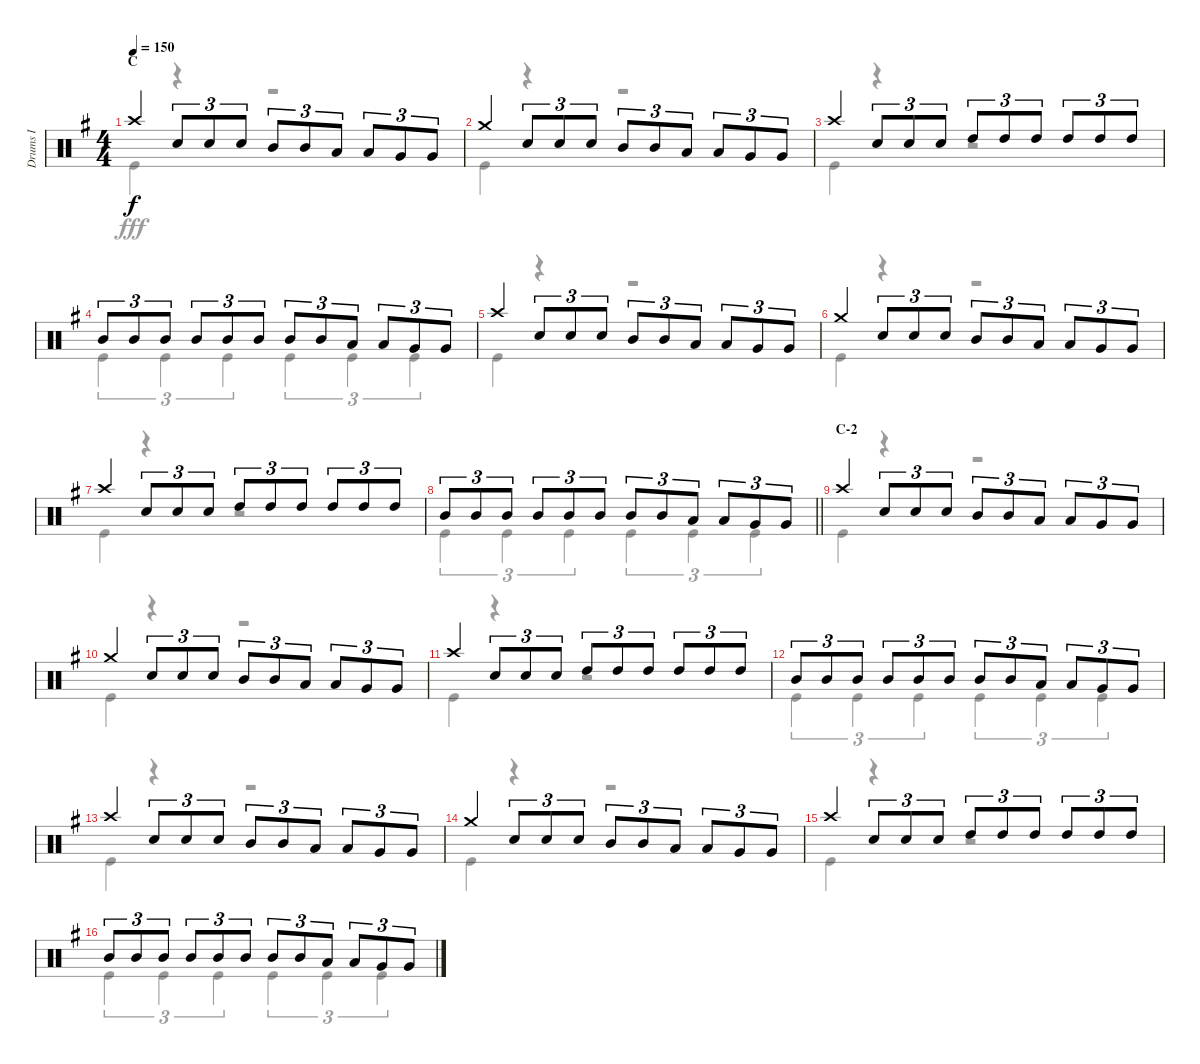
\track ("Drums I" "Drums I") {instrument percussion}
\staff {score}
\articulation defaults
\voice
\ts (4 4)
\section ("" "C")
\tempo 150
\clef neutral
\ks g "Crash high (hit)".4{dy f} "Snare (hit) 2".8{tu (3 2)} "Snare (hit) 2".8{tu (3 2)} "Snare (hit) 2".8{tu (3 2)} "Mid Tom (hit)".8{tu (3 2)} "Mid Tom (hit)".8{tu (3 2)} "Low Tom (hit)".8{tu (3 2)} "Low Tom (hit)".8{tu (3 2)} "Very Low Tom (hit)".8{tu (3 2)} "Very Low Tom (hit)".8{tu (3 2)}
|
"Crash medium (hit)".4 "Snare (hit) 2".8{tu (3 2)} "Snare (hit) 2".8{tu (3 2)} "Snare (hit) 2".8{tu (3 2)} "Mid Tom (hit)".8{tu (3 2)} "Mid Tom (hit)".8{tu (3 2)} "Low Tom (hit)".8{tu (3 2)} "Low Tom (hit)".8{tu (3 2)} "Very Low Tom (hit)".8{tu (3 2)} "Very Low Tom (hit)".8{tu (3 2)} |
"Crash high (hit)".4 "Snare (hit) 2".8{tu (3 2)} "Snare (hit) 2".8{tu (3 2)} "Snare (hit) 2".8{tu (3 2)} "High Tom (hit)".8{tu (3 2)} "High Tom (hit)".8{tu (3 2)} "High Tom (hit)".8{tu (3 2)} "High Tom (hit)".8{tu (3 2)} "High Tom (hit)".8{tu (3 2)} "High Tom (hit)".8{tu (3 2)} |
"Mid Tom (hit)".8{tu (3 2)} "Mid Tom (hit)".8{tu (3 2)} "Mid Tom (hit)".8{tu (3 2)} "Mid Tom (hit)".8{tu (3 2)} "Mid Tom (hit)".8{tu (3 2)} "Mid Tom (hit)".8{tu (3 2)} "Mid Tom (hit)".8{tu (3 2)} "Mid Tom (hit)".8{tu (3 2)} "Low Tom (hit)".8{tu (3 2)} "Low Tom (hit)".8{tu (3 2)} "Very Low Tom (hit)".8{tu (3 2)} "Very Low Tom (hit)".8{tu (3 2)} |
"Crash high (hit)".4 "Snare (hit) 2".8{tu (3 2)} "Snare (hit) 2".8{tu (3 2)} "Snare (hit) 2".8{tu (3 2)} "Mid Tom (hit)".8{tu (3 2)} "Mid Tom (hit)".8{tu (3 2)} "Low Tom (hit)".8{tu (3 2)} "Low Tom (hit)".8{tu (3 2)} "Very Low Tom (hit)".8{tu (3 2)} "Very Low Tom (hit)".8{tu (3 2)} |
"Crash medium (hit)".4 "Snare (hit) 2".8{tu (3 2)} "Snare (hit) 2".8{tu (3 2)} "Snare (hit) 2".8{tu (3 2)} "Mid Tom (hit)".8{tu (3 2)} "Mid Tom (hit)".8{tu (3 2)} "Low Tom (hit)".8{tu (3 2)} "Low Tom (hit)".8{tu (3 2)} "Very Low Tom (hit)".8{tu (3 2)} "Very Low Tom (hit)".8{tu (3 2)} |
"Crash high (hit)".4 "Snare (hit) 2".8{tu (3 2)} "Snare (hit) 2".8{tu (3 2)} "Snare (hit) 2".8{tu (3 2)} "High Tom (hit)".8{tu (3 2)} "High Tom (hit)".8{tu (3 2)} "High Tom (hit)".8{tu (3 2)} "High Tom (hit)".8{tu (3 2)} "High Tom (hit)".8{tu (3 2)} "High Tom (hit)".8{tu (3 2)} |
\barLineRight lightlight "Mid Tom (hit)".8{tu (3 2)} "Mid Tom (hit)".8{tu (3 2)} "Mid Tom (hit)".8{tu (3 2)} "Mid Tom (hit)".8{tu (3 2)} "Mid Tom (hit)".8{tu (3 2)} "Mid Tom (hit)".8{tu (3 2)} "Mid Tom (hit)".8{tu (3 2)} "Mid Tom (hit)".8{tu (3 2)} "Low Tom (hit)".8{tu (3 2)} "Low Tom (hit)".8{tu (3 2)} "Very Low Tom (hit)".8{tu (3 2)} "Very Low Tom (hit)".8{tu (3 2)}
|
\section ("" "C-2")
"Crash high (hit)".4 "Snare (hit) 2".8{tu (3 2)} "Snare (hit) 2".8{tu (3 2)} "Snare (hit) 2".8{tu (3 2)} "Mid Tom (hit)".8{tu (3 2)} "Mid Tom (hit)".8{tu (3 2)} "Low Tom (hit)".8{tu (3 2)} "Low Tom (hit)".8{tu (3 2)} "Very Low Tom (hit)".8{tu (3 2)} "Very Low Tom (hit)".8{tu (3 2)} |
"Crash medium (hit)".4 "Snare (hit) 2".8{tu (3 2)} "Snare (hit) 2".8{tu (3 2)} "Snare (hit) 2".8{tu (3 2)} "Mid Tom (hit)".8{tu (3 2)} "Mid Tom (hit)".8{tu (3 2)} "Low Tom (hit)".8{tu (3 2)} "Low Tom (hit)".8{tu (3 2)} "Very Low Tom (hit)".8{tu (3 2)} "Very Low Tom (hit)".8{tu (3 2)} |
"Crash high (hit)".4 "Snare (hit) 2".8{tu (3 2)} "Snare (hit) 2".8{tu (3 2)} "Snare (hit) 2".8{tu (3 2)} "High Tom (hit)".8{tu (3 2)} "High Tom (hit)".8{tu (3 2)} "High Tom (hit)".8{tu (3 2)} "High Tom (hit)".8{tu (3 2)} "High Tom (hit)".8{tu (3 2)} "High Tom (hit)".8{tu (3 2)} |
"Mid Tom (hit)".8{tu (3 2)} "Mid Tom (hit)".8{tu (3 2)} "Mid Tom (hit)".8{tu (3 2)} "Mid Tom (hit)".8{tu (3 2)} "Mid Tom (hit)".8{tu (3 2)} "Mid Tom (hit)".8{tu (3 2)} "Mid Tom (hit)".8{tu (3 2)} "Mid Tom (hit)".8{tu (3 2)} "Low Tom (hit)".8{tu (3 2)} "Low Tom (hit)".8{tu (3 2)} "Very Low Tom (hit)".8{tu (3 2)} "Very Low Tom (hit)".8{tu (3 2)} |
"Crash high (hit)".4 "Snare (hit) 2".8{tu (3 2)} "Snare (hit) 2".8{tu (3 2)} "Snare (hit) 2".8{tu (3 2)} "Mid Tom (hit)".8{tu (3 2)} "Mid Tom (hit)".8{tu (3 2)} "Low Tom (hit)".8{tu (3 2)} "Low Tom (hit)".8{tu (3 2)} "Very Low Tom (hit)".8{tu (3 2)} "Very Low Tom (hit)".8{tu (3 2)} |
"Crash medium (hit)".4 "Snare (hit) 2".8{tu (3 2)} "Snare (hit) 2".8{tu (3 2)} "Snare (hit) 2".8{tu (3 2)} "Mid Tom (hit)".8{tu (3 2)} "Mid Tom (hit)".8{tu (3 2)} "Low Tom (hit)".8{tu (3 2)} "Low Tom (hit)".8{tu (3 2)} "Very Low Tom (hit)".8{tu (3 2)} "Very Low Tom (hit)".8{tu (3 2)} |
"Crash high (hit)".4 "Snare (hit) 2".8{tu (3 2)} "Snare (hit) 2".8{tu (3 2)} "Snare (hit) 2".8{tu (3 2)} "High Tom (hit)".8{tu (3 2)} "High Tom (hit)".8{tu (3 2)} "High Tom (hit)".8{tu (3 2)} "High Tom (hit)".8{tu (3 2)} "High Tom (hit)".8{tu (3 2)} "High Tom (hit)".8{tu (3 2)} |
"Mid Tom (hit)".8{tu (3 2)} "Mid Tom (hit)".8{tu (3 2)} "Mid Tom (hit)".8{tu (3 2)} "Mid Tom (hit)".8{tu (3 2)} "Mid Tom (hit)".8{tu (3 2)} "Mid Tom (hit)".8{tu (3 2)} "Mid Tom (hit)".8{tu (3 2)} "Mid Tom (hit)".8{tu (3 2)} "Low Tom (hit)".8{tu (3 2)} "Low Tom (hit)".8{tu (3 2)} "Very Low Tom (hit)".8{tu (3 2)} "Very Low Tom (hit)".8{tu (3 2)}
\voice
\clef neutral
\ottava regular
\simile none
\ks g "Kick (hit)".4{dy fff}
r.4 r.2 |
"Kick (hit)".4 r.4 r.2 |
"Kick (hit)".4 r.4 r.2 |
"Kick (hit)".4{tu (3 2)} "Kick (hit)".4{tu (3 2)} "Kick (hit)".4{tu (3 2)} "Kick (hit)".4{tu (3 2)} "Kick (hit)".4{tu (3 2)} "Kick (hit)".4{tu (3 2)} |
"Kick (hit)".4 r.4 r.2 |
"Kick (hit)".4 r.4 r.2 |
"Kick (hit)".4 r.4 r.2 |
\barLineRight lightlight "Kick (hit)".4{tu (3 2)} "Kick (hit)".4{tu (3 2)} "Kick (hit)".4{tu (3 2)} "Kick (hit)".4{tu (3 2)} "Kick (hit)".4{tu (3 2)} "Kick (hit)".4{tu (3 2)}
|
"Kick (hit)".4 r.4 r.2 |
"Kick (hit)".4 r.4 r.2 |
"Kick (hit)".4 r.4 r.2 |
"Kick (hit)".4{tu (3 2)} "Kick (hit)".4{tu (3 2)} "Kick (hit)".4{tu (3 2)} "Kick (hit)".4{tu (3 2)} "Kick (hit)".4{tu (3 2)} "Kick (hit)".4{tu (3 2)} |
"Kick (hit)".4 r.4 r.2 |
"Kick (hit)".4 r.4 r.2 |
"Kick (hit)".4 r.4 r.2 |
"Kick (hit)".4{tu (3 2)} "Kick (hit)".4{tu (3 2)} "Kick (hit)".4{tu (3 2)} "Kick (hit)".4{tu (3 2)} "Kick (hit)".4{tu (3 2)} "Kick (hit)".4{tu (3 2)}
